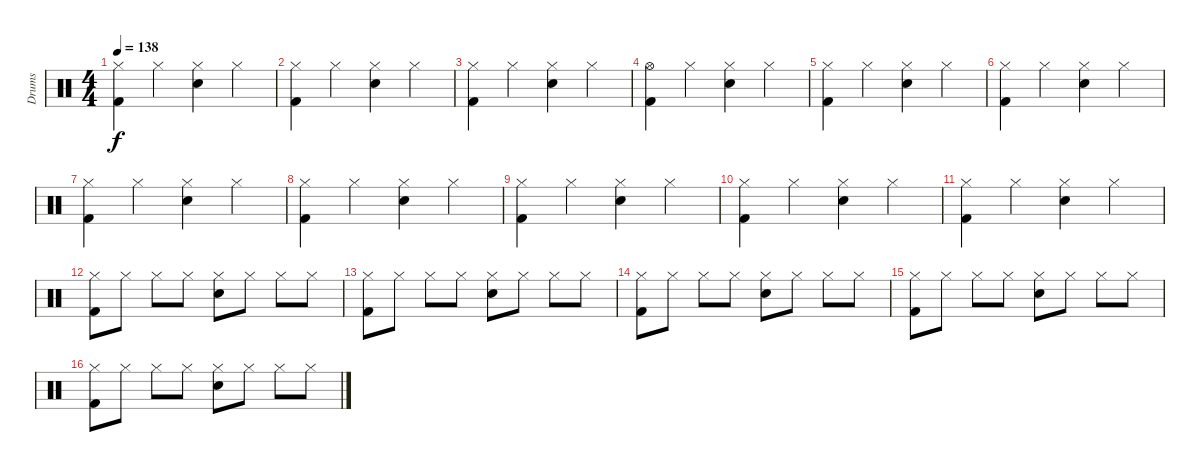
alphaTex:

\track ("Drums" "Drums") {instrument percussion}
\staff {score}
\articulation defaults
\ts (4 4)
\tempo 138
\clef neutral
\ks c
("Hi-Hat (closed)" "Kick (hit) 2").4{dy f} "Hi-Hat (closed)".4 ("Hi-Hat (closed)" "Snare (hit) 2").4 "Hi-Hat (closed)".4 |
("Hi-Hat (closed)" "Kick (hit) 2").4 "Hi-Hat (closed)".4 ("Hi-Hat (closed)" "Snare (hit) 2").4 "Hi-Hat (closed)".4 |
("Hi-Hat (closed)" "Kick (hit) 2").4 "Hi-Hat (closed)".4 ("Hi-Hat (closed)" "Snare (hit) 2").4 "Hi-Hat (closed)".4 |
("Hi-Hat (open)" "Kick (hit) 2").4 "Hi-Hat (closed)".4 ("Hi-Hat (closed)" "Snare (hit) 2").4 "Hi-Hat (closed)".4 |
("Hi-Hat (closed)" "Kick (hit) 2").4 "Hi-Hat (closed)".4 ("Hi-Hat (closed)" "Snare (hit) 2").4 "Hi-Hat (closed)".4 |
("Hi-Hat (closed)" "Kick (hit) 2").4 "Hi-Hat (closed)".4 ("Hi-Hat (closed)" "Snare (hit) 2").4 "Hi-Hat (closed)".4 |
("Hi-Hat (closed)" "Kick (hit) 2").4 "Hi-Hat (closed)".4 ("Hi-Hat (closed)" "Snare (hit) 2").4 "Hi-Hat (closed)".4 |
("Hi-Hat (closed)" "Kick (hit) 2").4 "Hi-Hat (closed)".4 ("Hi-Hat (closed)" "Snare (hit) 2").4 "Hi-Hat (closed)".4 |
("Hi-Hat (closed)" "Kick (hit) 2").4 "Hi-Hat (closed)".4 ("Hi-Hat (closed)" "Snare (hit) 2").4 "Hi-Hat (closed)".4 |
("Hi-Hat (closed)" "Kick (hit) 2").4 "Hi-Hat (closed)".4 ("Hi-Hat (closed)" "Snare (hit) 2").4 "Hi-Hat (closed)".4 |
("Hi-Hat (closed)" "Kick (hit) 2").4 "Hi-Hat (closed)".4 ("Hi-Hat (closed)" "Snare (hit) 2").4 "Hi-Hat (closed)".4 |
("Hi-Hat (closed)" "Kick (hit) 2").8 "Hi-Hat (closed)".8 "Hi-Hat (closed)".8 "Hi-Hat (closed)".8 ("Hi-Hat (closed)" "Snare (hit) 2").8 "Hi-Hat (closed)".8 "Hi-Hat (closed)".8 "Hi-Hat (closed)".8 |
("Hi-Hat (closed)" "Kick (hit) 2").8 "Hi-Hat (closed)".8 "Hi-Hat (closed)".8 "Hi-Hat (closed)".8 ("Hi-Hat (closed)" "Snare (hit) 2").8 "Hi-Hat (closed)".8 "Hi-Hat (closed)".8 "Hi-Hat (closed)".8 |
("Hi-Hat (closed)" "Kick (hit) 2").8 "Hi-Hat (closed)".8 "Hi-Hat (closed)".8 "Hi-Hat (closed)".8 ("Hi-Hat (closed)" "Snare (hit) 2").8 "Hi-Hat (closed)".8 "Hi-Hat (closed)".8 "Hi-Hat (closed)".8 |
("Hi-Hat (closed)" "Kick (hit) 2").8 "Hi-Hat (closed)".8 "Hi-Hat (closed)".8 "Hi-Hat (closed)".8 ("Hi-Hat (closed)" "Snare (hit) 2").8 "Hi-Hat (closed)".8 "Hi-Hat (closed)".8 "Hi-Hat (closed)".8 |
("Hi-Hat (closed)" "Kick (hit) 2").8 "Hi-Hat (closed)".8 "Hi-Hat (closed)".8 "Hi-Hat (closed)".8 ("Hi-Hat (closed)" "Snare (hit) 2").8 "Hi-Hat (closed)".8 "Hi-Hat (closed)".8 "Hi-Hat (closed)".8
